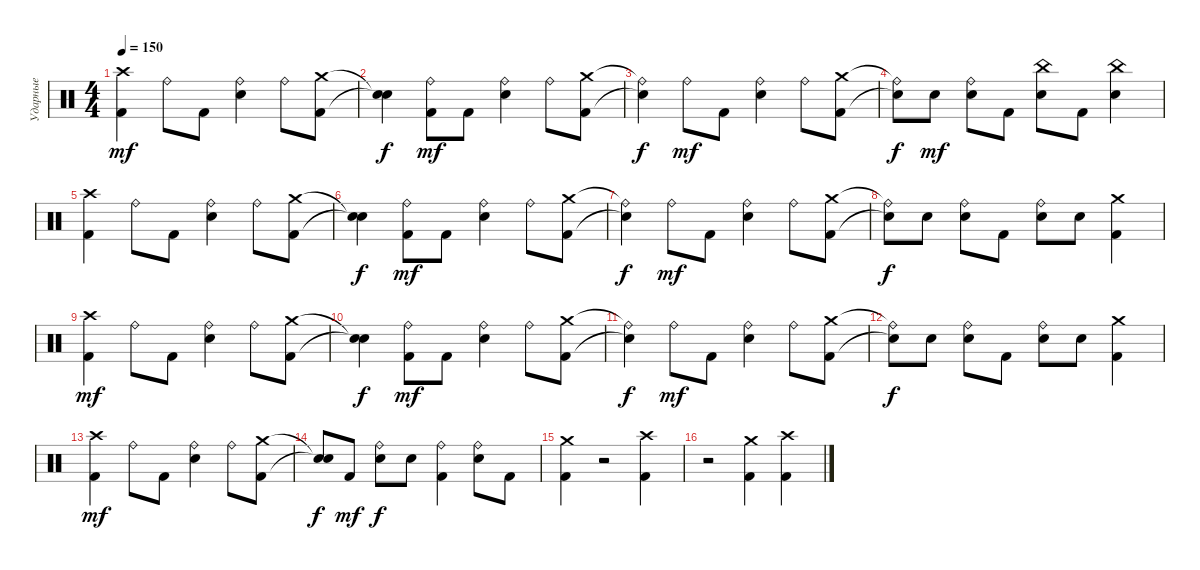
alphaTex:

\track ("Ударные" "Ударные") {instrument percussion}
\staff {score}
\articulation defaults
\ts (4 4)
\tempo 150
\clef neutral
\ks c
("Crash high (hit)" "Kick (hit) 2").4{dy mf} "Ride (bell)".8 "Kick (hit) 2".8 ("Ride (bell)" "Snare (hit) 2").4 "Ride (bell)".8 ("Crash medium (hit)" "Kick (hit) 2").8 |
("Snare (hit)"{t} "Snare (hit)"{t}).4{dy f} ("Ride (bell)" "Kick (hit) 2").8{dy mf} "Kick (hit) 2".8 ("Ride (bell)" "Snare (hit) 2").4 "Ride (bell)".8 ("Crash medium (hit)" "Kick (hit) 2").8 |
("Ride (bell)"{t} "Snare (hit)"{t}).4{dy f} "Ride (bell)".8{dy mf} "Kick (hit) 2".8 ("Ride (bell)" "Snare (hit) 2").4 "Ride (bell)".8 ("Crash medium (hit)" "Kick (hit) 2").8 |
("Ride (bell)"{t} "Snare (hit)"{t}).8{dy f} "Snare (hit) 2".8{dy mf} ("Ride (bell)" "Snare (hit) 2").8 "Kick (hit) 2".8 ("China (hit)" "Snare (hit) 2").8 "Kick (hit) 2".8 ("China (hit)" "Snare (hit) 2").4 |
("Crash high (hit)" "Kick (hit) 2").4 "Ride (bell)".8 "Kick (hit) 2".8 ("Ride (bell)" "Snare (hit) 2").4 "Ride (bell)".8 ("Crash medium (hit)" "Kick (hit) 2").8 |
("Snare (hit)"{t} "Snare (hit)"{t}).4{dy f} ("Ride (bell)" "Kick (hit) 2").8{dy mf} "Kick (hit) 2".8 ("Ride (bell)" "Snare (hit) 2").4 "Ride (bell)".8 ("Crash medium (hit)" "Kick (hit) 2").8 |
("Ride (bell)"{t} "Snare (hit)"{t}).4{dy f} "Ride (bell)".8{dy mf} "Kick (hit) 2".8 ("Ride (bell)" "Snare (hit) 2").4 "Ride (bell)".8 ("Crash medium (hit)" "Kick (hit) 2").8 |
("Ride (bell)"{t} "Snare (hit)"{t}).8{dy f} "Snare (hit) 2".8 ("Ride (bell)" "Snare (hit) 2").8 "Kick (hit) 2".8 ("Ride (bell)" "Snare (hit) 2").8 "Snare (hit) 2".8 ("Crash medium (hit)" "Kick (hit) 2").4 |
("Crash high (hit)" "Kick (hit) 2").4{dy mf} "Ride (bell)".8 "Kick (hit) 2".8 ("Ride (bell)" "Snare (hit) 2").4 "Ride (bell)".8 ("Crash medium (hit)" "Kick (hit) 2").8 |
("Snare (hit)"{t} "Snare (hit)"{t}).4{dy f} ("Ride (bell)" "Kick (hit) 2").8{dy mf} "Kick (hit) 2".8 ("Ride (bell)" "Snare (hit) 2").4 "Ride (bell)".8 ("Crash medium (hit)" "Kick (hit) 2").8 |
("Ride (bell)"{t} "Snare (hit)"{t}).4{dy f} "Ride (bell)".8{dy mf} "Kick (hit) 2".8 ("Ride (bell)" "Snare (hit) 2").4 "Ride (bell)".8 ("Crash medium (hit)" "Kick (hit) 2").8 |
("Ride (bell)"{t} "Snare (hit)"{t}).8{dy f} "Snare (hit) 2".8 ("Ride (bell)" "Snare (hit) 2").8 "Kick (hit) 2".8 ("Ride (bell)" "Snare (hit) 2").8 "Snare (hit) 2".8 ("Crash medium (hit)" "Kick (hit) 2").4 |
("Crash high (hit)" "Kick (hit) 2").4{dy mf} "Ride (bell)".8 "Kick (hit) 2".8 ("Ride (bell)" "Snare (hit) 2").4 "Ride (bell)".8 ("Crash medium (hit)" "Kick (hit) 2").8 |
("Snare (hit)"{t} "Snare (hit)"{t}).8{dy f} "Kick (hit) 2".8{dy mf} ("Ride (bell)" "Snare (hit) 2").8{dy f} "Snare (hit) 2".8 ("Ride (bell)" "Kick (hit) 2").4 ("Ride (bell)" "Snare (hit) 2").8 "Kick (hit) 2".8 |
("Crash medium (hit)" "Kick (hit) 2").4 r.2 ("Crash high (hit)" "Kick (hit) 2").4 |
r.2 ("Crash medium (hit)" "Kick (hit) 2").4 ("Crash high (hit)" "Kick (hit) 2").4
